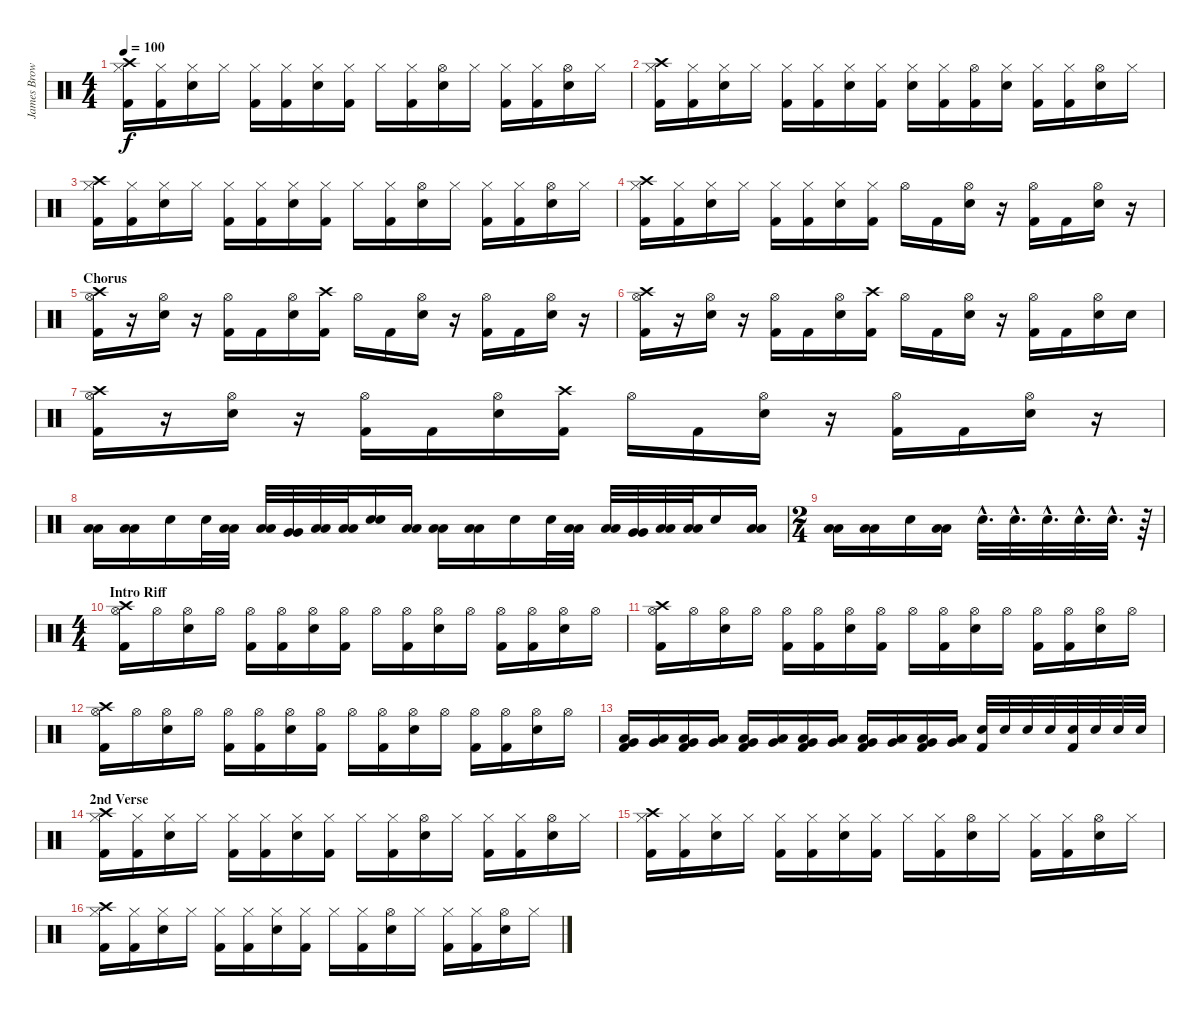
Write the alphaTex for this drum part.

\track ("James Brown" "James Brow") {instrument percussion}
\staff {score}
\articulation defaults
\ts (4 4)
\tempo 100
\clef neutral
\ks c
("Crash high (hit)" "Hi-Hat (closed)" "Kick (hit) 2").16{dy f} ("Hi-Hat (closed)" "Kick (hit) 2").16 ("Hi-Hat (closed)" "Snare (hit) 2").16 "Hi-Hat (closed)".16 ("Hi-Hat (closed)" "Kick (hit) 2").16 ("Hi-Hat (closed)" "Kick (hit) 2").16 ("Hi-Hat (closed)" "Snare (hit) 2").16 ("Hi-Hat (closed)" "Kick (hit) 2").16 "Hi-Hat (closed)".16 ("Hi-Hat (closed)" "Kick (hit) 2").16 ("Hi-Hat (open)" "Snare (hit) 2").16 "Hi-Hat (closed)".16 ("Hi-Hat (closed)" "Kick (hit) 2").16 ("Hi-Hat (closed)" "Kick (hit) 2").16 ("Hi-Hat (open)" "Snare (hit) 2").16 "Hi-Hat (closed)".16 |
("Crash high (hit)" "Hi-Hat (closed)" "Kick (hit) 2").16 ("Hi-Hat (closed)" "Kick (hit) 2").16 ("Hi-Hat (closed)" "Snare (hit) 2").16 "Hi-Hat (closed)".16 ("Hi-Hat (closed)" "Kick (hit) 2").16 ("Hi-Hat (closed)" "Kick (hit) 2").16 ("Hi-Hat (closed)" "Snare (hit) 2").16 ("Hi-Hat (closed)" "Kick (hit) 2").16 ("Hi-Hat (closed)" "Snare (hit) 2").16 ("Hi-Hat (closed)" "Kick (hit) 2").16 ("Hi-Hat (open)" "Kick (hit) 2").16 ("Hi-Hat (closed)" "Snare (hit) 2").16 ("Hi-Hat (closed)" "Kick (hit) 2").16 ("Hi-Hat (closed)" "Kick (hit) 2").16 ("Hi-Hat (open)" "Snare (hit) 2").16 "Hi-Hat (closed)".16 |
("Crash high (hit)" "Hi-Hat (closed)" "Kick (hit) 2").16 ("Hi-Hat (closed)" "Kick (hit) 2").16 ("Hi-Hat (closed)" "Snare (hit) 2").16 "Hi-Hat (closed)".16 ("Hi-Hat (closed)" "Kick (hit) 2").16 ("Hi-Hat (closed)" "Kick (hit) 2").16 ("Hi-Hat (closed)" "Snare (hit) 2").16 ("Hi-Hat (closed)" "Kick (hit) 2").16 "Hi-Hat (closed)".16 ("Hi-Hat (closed)" "Kick (hit) 2").16 ("Hi-Hat (open)" "Snare (hit) 2").16 "Hi-Hat (closed)".16 ("Hi-Hat (closed)" "Kick (hit) 2").16 ("Hi-Hat (closed)" "Kick (hit) 2").16 ("Hi-Hat (open)" "Snare (hit) 2").16 "Hi-Hat (closed)".16 |
("Crash high (hit)" "Hi-Hat (closed)" "Kick (hit) 2").16 ("Hi-Hat (closed)" "Kick (hit) 2").16 ("Hi-Hat (closed)" "Snare (hit) 2").16 "Hi-Hat (closed)".16 ("Hi-Hat (closed)" "Kick (hit) 2").16 ("Hi-Hat (closed)" "Kick (hit) 2").16 ("Hi-Hat (closed)" "Snare (hit) 2").16 ("Hi-Hat (closed)" "Kick (hit) 2").16 "Hi-Hat (open)".16 "Kick (hit) 2".16 ("Hi-Hat (open)" "Snare (hit) 2").16 r.16 ("Hi-Hat (open)" "Kick (hit) 2").16 "Kick (hit) 2".16 ("Hi-Hat (open)" "Snare (hit) 2").16 r.16 |
\section ("" "Chorus")
("Crash high (hit)" "Hi-Hat (open)" "Kick (hit) 2").16 r.16 ("Hi-Hat (open)" "Snare (hit) 2").16 r.16 ("Hi-Hat (open)" "Kick (hit) 2").16 "Kick (hit) 2".16 ("Hi-Hat (open)" "Snare (hit) 2").16 ("Crash high (hit)" "Kick (hit) 2").16 "Hi-Hat (open)".16 "Kick (hit) 2".16 ("Hi-Hat (open)" "Snare (hit) 2").16 r.16 ("Hi-Hat (open)" "Kick (hit) 2").16 "Kick (hit) 2".16 ("Hi-Hat (open)" "Snare (hit) 2").16 r.16 |
("Crash high (hit)" "Hi-Hat (open)" "Kick (hit) 2").16 r.16 ("Hi-Hat (open)" "Snare (hit) 2").16 r.16 ("Hi-Hat (open)" "Kick (hit) 2").16 "Kick (hit) 2".16 ("Hi-Hat (open)" "Snare (hit) 2").16 ("Crash high (hit)" "Kick (hit) 2").16 "Hi-Hat (open)".16 "Kick (hit) 2".16 ("Hi-Hat (open)" "Snare (hit) 2").16 r.16 ("Hi-Hat (open)" "Kick (hit) 2").16 "Kick (hit) 2".16 ("Hi-Hat (open)" "Snare (hit) 2").16 "Snare (hit) 2".16 |
("Crash high (hit)" "Hi-Hat (open)" "Kick (hit) 2").16 r.16 ("Hi-Hat (open)" "Snare (hit) 2").16 r.16 ("Hi-Hat (open)" "Kick (hit) 2").16 "Kick (hit) 2".16 ("Hi-Hat (open)" "Snare (hit) 2").16 ("Crash high (hit)" "Kick (hit) 2").16 "Hi-Hat (open)".16 "Kick (hit) 2".16 ("Hi-Hat (open)" "Snare (hit) 2").16 r.16 ("Hi-Hat (open)" "Kick (hit) 2").16 "Kick (hit) 2".16 ("Hi-Hat (open)" "Snare (hit) 2").16 r.16 |
("Low Floor Tom (hit)" "Low Floor Tom (hit)").16 ("Low Floor Tom (hit)" "Low Floor Tom (hit)").16 "Snare (hit) 2".16 "Snare (hit) 2".32 ("Low Tom (hit)" "Low Tom (hit)").32 ("Low Tom (hit)" "Low Tom (hit)").32 ("Very Low Tom (hit)" "Very Low Tom (hit)").32 ("Low Floor Tom (hit)" "Low Floor Tom (hit)").32 ("Low Floor Tom (hit)" "Low Floor Tom (hit)").32 ("Snare (hit) 2" "Snare (hit) 2").16 ("Low Floor Tom (hit)" "Low Floor Tom (hit)").16 ("Low Floor Tom (hit)" "Low Floor Tom (hit)").16 ("Low Floor Tom (hit)" "Low Floor Tom (hit)").16 "Snare (hit) 2".16 "Snare (hit) 2".32 ("Low Tom (hit)" "Low Tom (hit)").32 ("Low Tom (hit)" "Low Tom (hit)").32 ("Very Low Tom (hit)" "Very Low Tom (hit)").32 ("Low Floor Tom (hit)" "Low Floor Tom (hit)").32 ("Low Floor Tom (hit)" "Low Floor Tom (hit)").32 "Snare (hit) 2".16 ("Low Floor Tom (hit)" "Low Floor Tom (hit)").16 |
\ts (2 4)
("Low Floor Tom (hit)" "Low Floor Tom (hit)").16 ("Low Floor Tom (hit)" "Low Floor Tom (hit)").16 "Snare (hit) 2".16 ("Low Floor Tom (hit)" "Low Floor Tom (hit)").16 "Snare (hit) 2"{hac}.32{d} "Snare (hit) 2"{hac}.32{d} "Snare (hit) 2"{hac}.32{d} "Snare (hit) 2"{hac}.32{d} "Snare (hit) 2"{hac}.32{d} r.64 |
\ts (4 4)
\section ("" "Intro Riff")
("Crash high (hit)" "Hi-Hat (open)" "Kick (hit) 2").16 "Hi-Hat (open)".16 ("Hi-Hat (open)" "Snare (hit) 2").16 "Hi-Hat (open)".16 ("Hi-Hat (open)" "Kick (hit) 2").16 ("Hi-Hat (open)" "Kick (hit) 2").16 ("Hi-Hat (open)" "Snare (hit) 2").16 ("Hi-Hat (open)" "Kick (hit) 2").16 "Hi-Hat (open)".16 ("Hi-Hat (open)" "Kick (hit) 2").16 ("Hi-Hat (open)" "Snare (hit) 2").16 "Hi-Hat (open)".16 ("Hi-Hat (open)" "Kick (hit) 2").16 ("Hi-Hat (open)" "Kick (hit) 2").16 ("Hi-Hat (open)" "Snare (hit) 2").16 "Hi-Hat (open)".16 |
("Crash high (hit)" "Hi-Hat (open)" "Kick (hit) 2").16 "Hi-Hat (open)".16 ("Hi-Hat (open)" "Snare (hit) 2").16 "Hi-Hat (open)".16 ("Hi-Hat (open)" "Kick (hit) 2").16 ("Hi-Hat (open)" "Kick (hit) 2").16 ("Hi-Hat (open)" "Snare (hit) 2").16 ("Hi-Hat (open)" "Kick (hit) 2").16 "Hi-Hat (open)".16 ("Hi-Hat (open)" "Kick (hit) 2").16 ("Hi-Hat (open)" "Snare (hit) 2").16 "Hi-Hat (open)".16 ("Hi-Hat (open)" "Kick (hit) 2").16 ("Hi-Hat (open)" "Kick (hit) 2").16 ("Hi-Hat (open)" "Snare (hit) 2").16 "Hi-Hat (open)".16 |
("Crash high (hit)" "Hi-Hat (open)" "Kick (hit) 2").16 "Hi-Hat (open)".16 ("Hi-Hat (open)" "Snare (hit) 2").16 "Hi-Hat (open)".16 ("Hi-Hat (open)" "Kick (hit) 2").16 ("Hi-Hat (open)" "Kick (hit) 2").16 ("Hi-Hat (open)" "Snare (hit) 2").16 ("Hi-Hat (open)" "Kick (hit) 2").16 "Hi-Hat (open)".16 ("Hi-Hat (open)" "Kick (hit) 2").16 ("Hi-Hat (open)" "Snare (hit) 2").16 "Hi-Hat (open)".16 ("Hi-Hat (open)" "Kick (hit) 2").16 ("Hi-Hat (open)" "Kick (hit) 2").16 ("Hi-Hat (open)" "Snare (hit) 2").16 "Hi-Hat (open)".16 |
("Low Floor Tom (hit)" "Very Low Tom (hit)" "Kick (hit) 2").16 ("Low Floor Tom (hit)" "Very Low Tom (hit)").16 ("Low Floor Tom (hit)" "Very Low Tom (hit)" "Kick (hit) 2").16 ("Low Floor Tom (hit)" "Very Low Tom (hit)").16 ("Low Floor Tom (hit)" "Very Low Tom (hit)" "Kick (hit) 2").16 ("Low Floor Tom (hit)" "Very Low Tom (hit)").16 ("Low Floor Tom (hit)" "Very Low Tom (hit)" "Kick (hit) 2").16 ("Low Floor Tom (hit)" "Very Low Tom (hit)").16 ("Low Floor Tom (hit)" "Very Low Tom (hit)" "Kick (hit) 2").16 ("Low Floor Tom (hit)" "Very Low Tom (hit)").16 ("Low Floor Tom (hit)" "Very Low Tom (hit)" "Kick (hit) 2").16 ("Low Floor Tom (hit)" "Very Low Tom (hit)").16 ("Snare (hit) 2" "Kick (hit) 2").32 "Snare (hit) 2".32 "Snare (hit) 2".32 "Snare (hit) 2".32 ("Snare (hit) 2" "Kick (hit) 2").32 "Snare (hit) 2".32 "Snare (hit) 2".32 "Snare (hit) 2".32 |
\section ("" "2nd Verse")
("Crash high (hit)" "Hi-Hat (closed)" "Kick (hit) 2").16 ("Hi-Hat (closed)" "Kick (hit) 2").16 ("Hi-Hat (closed)" "Snare (hit) 2").16 "Hi-Hat (closed)".16 ("Hi-Hat (closed)" "Kick (hit) 2").16 ("Hi-Hat (closed)" "Kick (hit) 2").16 ("Hi-Hat (closed)" "Snare (hit) 2").16 ("Hi-Hat (closed)" "Kick (hit) 2").16 "Hi-Hat (closed)".16 ("Hi-Hat (closed)" "Kick (hit) 2").16 ("Hi-Hat (open)" "Snare (hit) 2").16 "Hi-Hat (closed)".16 ("Hi-Hat (closed)" "Kick (hit) 2").16 ("Hi-Hat (closed)" "Kick (hit) 2").16 ("Hi-Hat (open)" "Snare (hit) 2").16 "Hi-Hat (closed)".16 |
("Crash high (hit)" "Hi-Hat (closed)" "Kick (hit) 2").16 ("Hi-Hat (closed)" "Kick (hit) 2").16 ("Hi-Hat (closed)" "Snare (hit) 2").16 "Hi-Hat (closed)".16 ("Hi-Hat (closed)" "Kick (hit) 2").16 ("Hi-Hat (closed)" "Kick (hit) 2").16 ("Hi-Hat (closed)" "Snare (hit) 2").16 ("Hi-Hat (closed)" "Kick (hit) 2").16 "Hi-Hat (closed)".16 ("Hi-Hat (closed)" "Kick (hit) 2").16 ("Hi-Hat (open)" "Snare (hit) 2").16 "Hi-Hat (closed)".16 ("Hi-Hat (closed)" "Kick (hit) 2").16 ("Hi-Hat (closed)" "Kick (hit) 2").16 ("Hi-Hat (open)" "Snare (hit) 2").16 "Hi-Hat (closed)".16 |
("Crash high (hit)" "Hi-Hat (closed)" "Kick (hit) 2").16 ("Hi-Hat (closed)" "Kick (hit) 2").16 ("Hi-Hat (closed)" "Snare (hit) 2").16 "Hi-Hat (closed)".16 ("Hi-Hat (closed)" "Kick (hit) 2").16 ("Hi-Hat (closed)" "Kick (hit) 2").16 ("Hi-Hat (closed)" "Snare (hit) 2").16 ("Hi-Hat (closed)" "Kick (hit) 2").16 "Hi-Hat (closed)".16 ("Hi-Hat (closed)" "Kick (hit) 2").16 ("Hi-Hat (open)" "Snare (hit) 2").16 "Hi-Hat (closed)".16 ("Hi-Hat (closed)" "Kick (hit) 2").16 ("Hi-Hat (closed)" "Kick (hit) 2").16 ("Hi-Hat (open)" "Snare (hit) 2").16 "Hi-Hat (closed)".16
